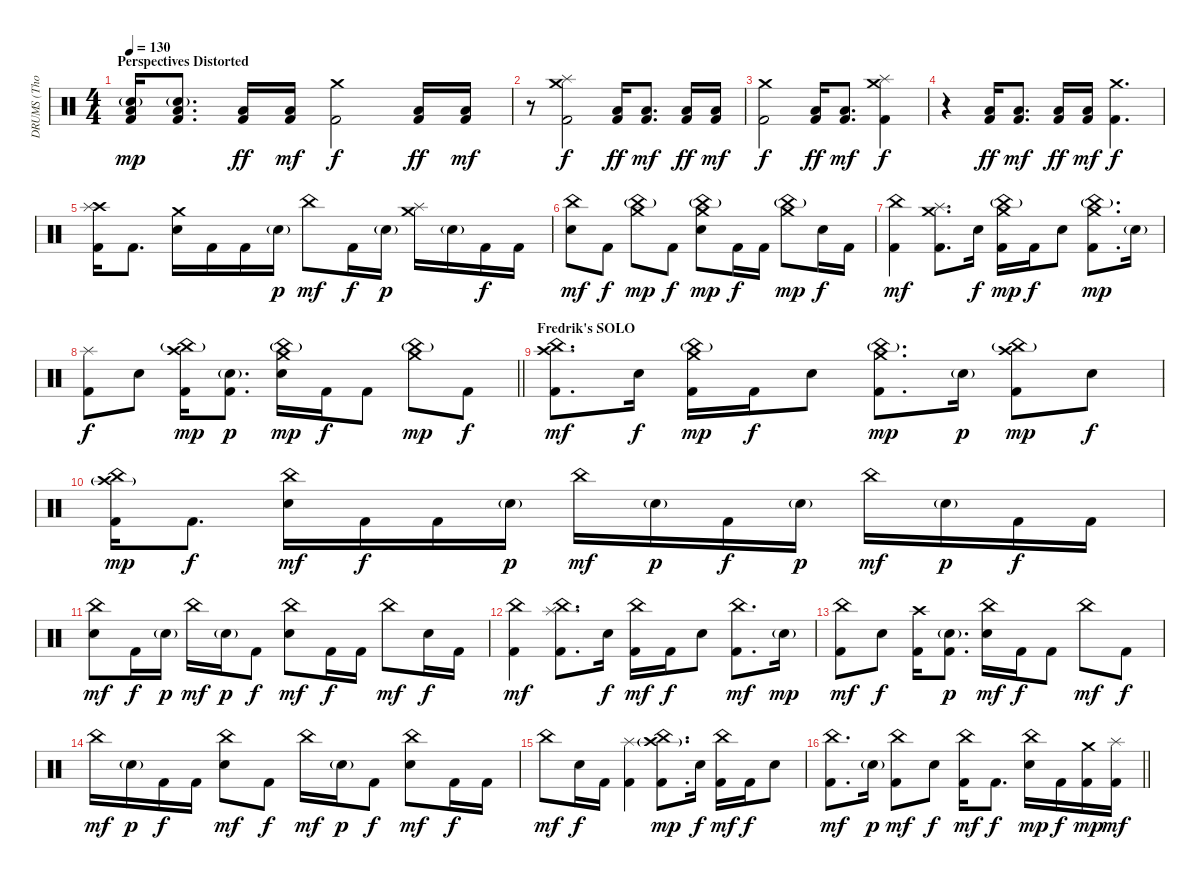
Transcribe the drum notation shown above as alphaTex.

\track ("DRUMS (Thomas Haake)" "DRUMS (Tho") {instrument percussion}
\staff {score}
\articulation defaults
\ts (4 4)
\section ("" "Perspectives Distorted")
\tempo 130
\clef neutral
\ks c
("Low Floor Tom (hit)" "Electric Snare (hit)"{g} "Kick (hit) 2").16{dy mp} ("Low Floor Tom (hit)" "Electric Snare (hit)"{g} "Kick (hit) 2").8{d} ("Low Floor Tom (hit)" "Kick (hit) 2").16{dy ff} ("Low Floor Tom (hit)" "Kick (hit) 2").16{dy mf} ("Crash medium (hit)" "Kick (hit) 2").2{dy f} ("Low Floor Tom (hit)" "Kick (hit) 2").16{dy ff} ("Low Floor Tom (hit)" "Kick (hit) 2").16{dy mf} |
r.8 ("Crash medium (hit)" "Splash (hit)" "Kick (hit) 2").2{dy f} ("Low Floor Tom (hit)" "Kick (hit) 2").16{dy ff} ("Low Floor Tom (hit)" "Kick (hit) 2").8{d dy mf} ("Low Floor Tom (hit)" "Kick (hit) 2").16{dy ff} ("Low Floor Tom (hit)" "Kick (hit) 2").16{dy mf} |
("Crash medium (hit)" "Kick (hit) 2").2{dy f} ("Low Floor Tom (hit)" "Kick (hit) 2").16{dy ff} ("Low Floor Tom (hit)" "Kick (hit) 2").8{d dy mf} ("Crash medium (hit)" "Splash (hit)" "Kick (hit) 2").4{dy f} |
r.4 ("Low Floor Tom (hit)" "Kick (hit) 2").16{dy ff} ("Low Floor Tom (hit)" "Kick (hit) 2").8{d dy mf} ("Low Floor Tom (hit)" "Kick (hit) 2").16{dy ff} ("Low Floor Tom (hit)" "Kick (hit) 2").16{dy mf} ("Crash medium (hit)" "Kick (hit) 2").4{d dy f} |
("Crash high (hit)" "Splash (hit)" "Kick (hit) 2").16 "Kick (hit) 2".8{d} ("Crash medium (hit)" "Electric Snare (hit)").16 "Kick (hit) 2".16 "Kick (hit) 2".16 "Electric Snare (hit)"{g}.16{dy p} "China (hit)".8{dy mf} "Kick (hit) 2".16{dy f} "Electric Snare (hit)"{g}.16{dy p} ("Crash medium (hit)" "Splash (hit)").16 "Electric Snare (hit)"{g}.16 "Kick (hit) 2".16{dy f} "Kick (hit) 2".16 |
("China (hit)" "Electric Snare (hit)").8{dy mf} "Kick (hit) 2".8{dy f} ("Crash medium (hit)" "China (hit)"{g}).8{dy mp} "Kick (hit) 2".8{dy f} ("Crash medium (hit)" "China (hit)"{g} "Electric Snare (hit)").8{dy mp} "Kick (hit) 2".16{dy f} "Kick (hit) 2".16 ("Crash medium (hit)" "China (hit)"{g}).8{dy mp} "Electric Snare (hit)".16{dy f} "Kick (hit) 2".16 |
("China (hit)" "Kick (hit) 2").4{dy mf} ("Crash medium (hit)" "Splash (hit)" "Kick (hit) 2").8{d} "Electric Snare (hit)".16{dy f} ("Crash medium (hit)" "China (hit)"{g} "Kick (hit) 2").16{dy mp} "Kick (hit) 2".16{dy f} "Electric Snare (hit)".8 ("Crash medium (hit)" "China (hit)"{g} "Kick (hit) 2").8{d dy mp} "Electric Snare (hit)"{g}.16 |
\barLineRight lightlight
("Splash (hit)" "Kick (hit) 2").8{dy f} "Electric Snare (hit)".8 ("Crash high (hit)" "China (hit)"{g} "Kick (hit) 2").16{dy mp} ("Electric Snare (hit)"{g} "Kick (hit) 2").8{d dy p} ("Crash medium (hit)" "China (hit)"{g} "Electric Snare (hit)").16{dy mp} "Kick (hit) 2".16{dy f} "Kick (hit) 2".8 ("Crash medium (hit)" "China (hit)"{g}).8{dy mp} "Kick (hit) 2".8{dy f} |
\section ("" "Fredrik's SOLO")
("China (hit)" "Crash high (hit)" "Kick (hit) 2").8{d dy mf} "Electric Snare (hit)".16{dy f} ("Crash medium (hit)" "China (hit)"{g} "Kick (hit) 2").16{dy mp} "Kick (hit) 2".16{dy f} "Electric Snare (hit)".8 ("Crash medium (hit)" "China (hit)"{g} "Kick (hit) 2").8{d dy mp} "Electric Snare (hit)"{g}.16{dy p} ("Crash high (hit)" "China (hit)"{g} "Kick (hit) 2").8{dy mp} "Electric Snare (hit)".8{dy f} |
("China (hit)" "Crash high (hit)"{g} "Kick (hit) 2").16{dy mp} "Kick (hit) 2".8{d dy f} ("China (hit)" "Electric Snare (hit)").16{dy mf} "Kick (hit) 2".16{dy f} "Kick (hit) 2".16 "Electric Snare (hit)"{g}.16{dy p} "China (hit)".16{dy mf} "Electric Snare (hit)"{g}.16{dy p} "Kick (hit) 2".16{dy f} "Electric Snare (hit)"{g}.16{dy p} "China (hit)".16{dy mf} "Electric Snare (hit)"{g}.16{dy p} "Kick (hit) 2".16{dy f} "Kick (hit) 2".16 |
("China (hit)" "Electric Snare (hit)").8{dy mf} "Kick (hit) 2".16{dy f} "Electric Snare (hit)"{g}.16{dy p} "China (hit)".16{dy mf} "Electric Snare (hit)"{g}.16{dy p} "Kick (hit) 2".8{dy f} ("China (hit)" "Electric Snare (hit)").8{dy mf} "Kick (hit) 2".16{dy f} "Kick (hit) 2".16 "China (hit)".8{dy mf} "Electric Snare (hit)".16{dy f} "Kick (hit) 2".16 |
("China (hit)" "Kick (hit) 2").4{dy mf} ("China (hit)" "Splash (hit)" "Kick (hit) 2").8{d} "Electric Snare (hit)".16{dy f} ("China (hit)" "Kick (hit) 2").16{dy mf} "Kick (hit) 2".16{dy f} "Electric Snare (hit)".8 ("China (hit)" "Kick (hit) 2").8{d dy mf} "Electric Snare (hit)"{g}.16{dy mp} |
("China (hit)" "Kick (hit) 2").8{dy mf} "Electric Snare (hit)".8{dy f} ("Crash high (hit)" "Kick (hit) 2").16 ("Electric Snare (hit)"{g} "Kick (hit) 2").8{d dy p} ("China (hit)" "Electric Snare (hit)").16{dy mf} "Kick (hit) 2".16{dy f} "Kick (hit) 2".8 "China (hit)".8{dy mf} "Kick (hit) 2".8{dy f} |
"China (hit)".16{dy mf} "Electric Snare (hit)"{g}.16{dy p} "Kick (hit) 2".16{dy f} "Kick (hit) 2".16 ("China (hit)" "Electric Snare (hit)").8{dy mf} "Kick (hit) 2".8{dy f} "China (hit)".16{dy mf} "Electric Snare (hit)"{g}.16{dy p} "Kick (hit) 2".8{dy f} ("China (hit)" "Electric Snare (hit)").8{dy mf} "Kick (hit) 2".16{dy f} "Kick (hit) 2".16 |
"China (hit)".8{dy mf} "Electric Snare (hit)".16{dy f} "Kick (hit) 2".16 ("Splash (hit)" "Kick (hit) 2").4 ("China (hit)" "Crash high (hit)"{g} "Kick (hit) 2").8{d dy mp} "Electric Snare (hit)".16{dy f} ("China (hit)" "Kick (hit) 2").16{dy mf} "Kick (hit) 2".16{dy f} "Electric Snare (hit)".8 |
\barLineRight lightlight
("China (hit)" "Kick (hit) 2").8{d dy mf} "Electric Snare (hit)"{g}.16{dy p} ("China (hit)" "Kick (hit) 2").8{dy mf} "Electric Snare (hit)".8{dy f} ("China (hit)" "Kick (hit) 2").16{dy mf} "Kick (hit) 2".8{d dy f} ("China (hit)" "Electric Snare (hit)").16{dy mp} "Kick (hit) 2".16{dy f} ("Crash medium (hit)" "Kick (hit) 2").16{dy mp} ("Splash (hit)" "Kick (hit) 2").16{dy mf}
